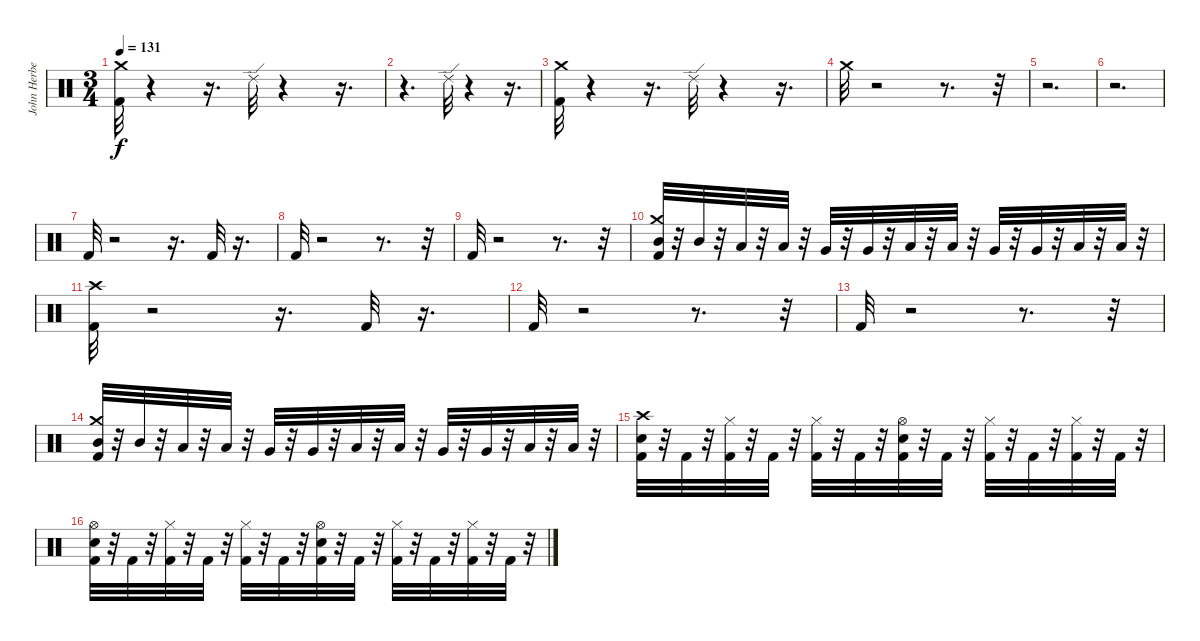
\track ("John Herbert" "John Herbe") {instrument percussion}
\staff {score}
\articulation defaults
\ts (3 4)
\tempo 131
\clef neutral
\ks c
("Kick (hit) 2" "Crash medium (hit)").32{dy f} r.4 r.16{d} "Ride (edge) 2".32 r.4 r.16{d} |
r.4{d} "Ride (edge) 2".32 r.4 r.16{d} |
("Kick (hit) 2" "Crash medium (hit)").32 r.4 r.16{d} "Ride (edge) 2".32 r.4 r.16{d} |
"Crash medium (hit)".32 r.2 r.8{d} r.32 |
r.2{d} |
r.2{d} |
"Kick (hit) 2".32 r.2 r.16{d} "Kick (hit) 2".32 r.16{d} |
"Kick (hit) 2".32 r.2 r.8{d} r.32 |
"Kick (hit) 2".32 r.2 r.8{d} r.32 |
("Mid Tom (hit)" "Crash medium (hit)" "Kick (hit) 2").32 r.32 "Mid Tom (hit)".32 r.32 "Low Tom (hit)".32 r.32 "Low Tom (hit)".32 r.32 "Very Low Tom (hit)".32 r.32 "Very Low Tom (hit)".32 r.32 "Low Tom (hit)".32 r.32 "Low Tom (hit)".32 r.32 "Very Low Tom (hit)".32 r.32 "Very Low Tom (hit)".32 r.32 "Low Floor Tom (hit)".32 r.32 "Low Floor Tom (hit)".32 r.32 |
("Crash high (hit)" "Kick (hit) 2").32 r.2 r.16{d} "Kick (hit) 2".32 r.16{d} |
"Kick (hit) 2".32 r.2 r.8{d} r.32 |
"Kick (hit) 2".32 r.2 r.8{d} r.32 |
("Mid Tom (hit)" "Crash medium (hit)" "Kick (hit) 2").32 r.32 "Mid Tom (hit)".32 r.32 "Low Tom (hit)".32 r.32 "Low Tom (hit)".32 r.32 "Very Low Tom (hit)".32 r.32 "Very Low Tom (hit)".32 r.32 "Low Tom (hit)".32 r.32 "Low Tom (hit)".32 r.32 "Very Low Tom (hit)".32 r.32 "Very Low Tom (hit)".32 r.32 "Low Floor Tom (hit)".32 r.32 "Low Floor Tom (hit)".32 r.32 |
("Snare (hit) 2" "Kick (hit) 2" "Crash high (hit)").32 r.32 "Kick (hit) 2".32 r.32 ("Kick (hit) 2" "Hi-Hat (closed)").32 r.32 "Kick (hit) 2".32 r.32 ("Kick (hit) 2" "Hi-Hat (closed)").32 r.32 "Kick (hit) 2".32 r.32 ("Snare (hit) 2" "Kick (hit) 2" "Hi-Hat (open)").32 r.32 "Kick (hit) 2".32 r.32 ("Kick (hit) 2" "Hi-Hat (closed)").32 r.32 "Kick (hit) 2".32 r.32 ("Kick (hit) 2" "Hi-Hat (closed)").32 r.32 "Kick (hit) 2".32 r.32 |
("Snare (hit) 2" "Kick (hit) 2" "Hi-Hat (open)").32 r.32 "Kick (hit) 2".32 r.32 ("Kick (hit) 2" "Hi-Hat (closed)").32 r.32 "Kick (hit) 2".32 r.32 ("Kick (hit) 2" "Hi-Hat (closed)").32 r.32 "Kick (hit) 2".32 r.32 ("Snare (hit) 2" "Kick (hit) 2" "Hi-Hat (open)").32 r.32 "Kick (hit) 2".32 r.32 ("Kick (hit) 2" "Hi-Hat (closed)").32 r.32 "Kick (hit) 2".32 r.32 ("Kick (hit) 2" "Hi-Hat (closed)").32 r.32 "Kick (hit) 2".32 r.32
